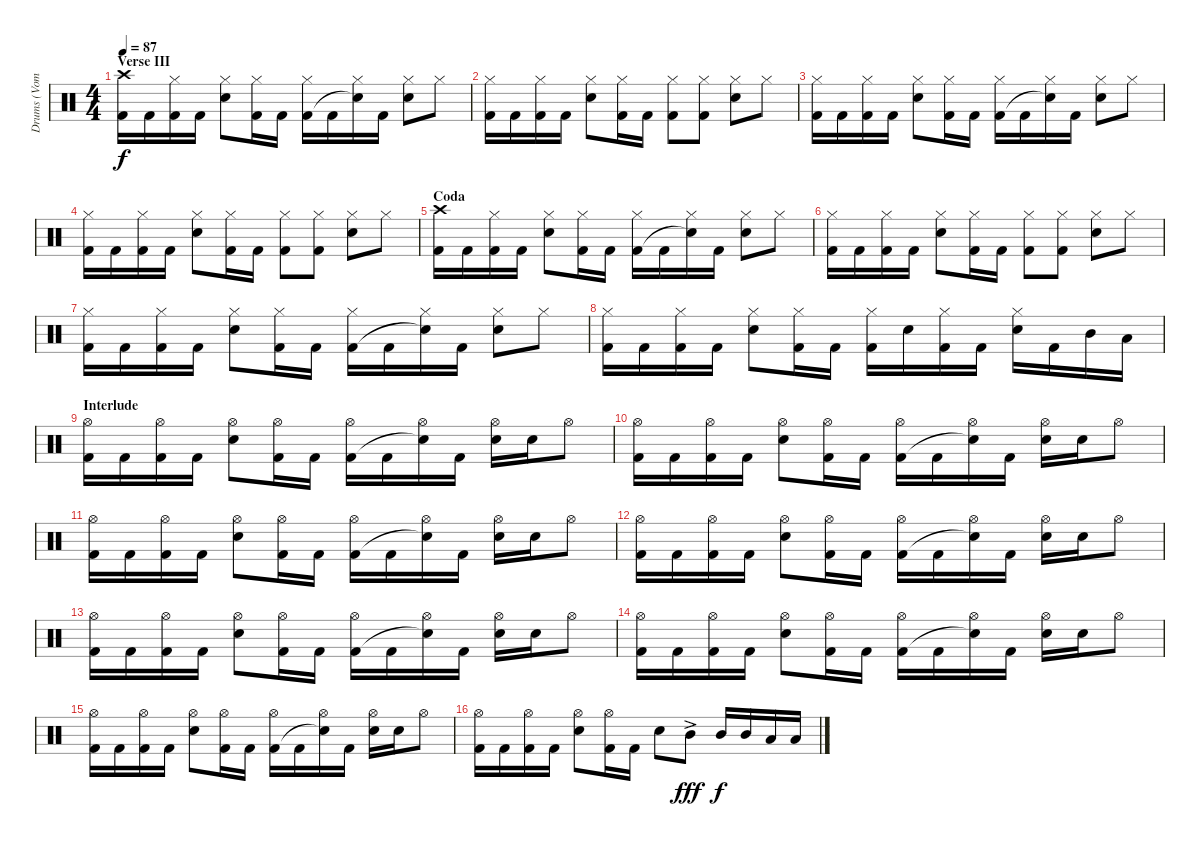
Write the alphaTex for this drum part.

\track ("Drums (Vom)" "Drums (Vom") {instrument percussion}
\staff {score}
\articulation defaults
\ts (4 4)
\section ("" "Verse III")
\tempo 87
\clef neutral
\ks c
("Crash high (hit)" "Kick (hit) 2").16{dy f} "Kick (hit) 2".16 ("Hi-Hat (closed)" "Kick (hit) 2").16 "Kick (hit) 2".16 ("Hi-Hat (closed)" "Snare (hit) 2").8 ("Hi-Hat (closed)" "Kick (hit) 2").16 "Kick (hit) 2".16 ("Hi-Hat (closed)" "Kick (hit) 2").16 "Kick (hit) 2".16 ("Hi-Hat (closed)" "Snare (hit)"{t}).16 "Kick (hit) 2".16 ("Hi-Hat (closed)" "Snare (hit) 2").8 "Hi-Hat (closed)".8 |
("Hi-Hat (closed)" "Kick (hit) 2").16 "Kick (hit) 2".16 ("Hi-Hat (closed)" "Kick (hit) 2").16 "Kick (hit) 2".16 ("Hi-Hat (closed)" "Snare (hit) 2").8 ("Hi-Hat (closed)" "Kick (hit) 2").16 "Kick (hit) 2".16 ("Hi-Hat (closed)" "Kick (hit) 2").8 ("Hi-Hat (closed)" "Kick (hit) 2").8 ("Hi-Hat (closed)" "Snare (hit) 2").8 "Hi-Hat (closed)".8 |
("Hi-Hat (closed)" "Kick (hit) 2").16 "Kick (hit) 2".16 ("Hi-Hat (closed)" "Kick (hit) 2").16 "Kick (hit) 2".16 ("Hi-Hat (closed)" "Snare (hit) 2").8 ("Hi-Hat (closed)" "Kick (hit) 2").16 "Kick (hit) 2".16 ("Hi-Hat (closed)" "Kick (hit) 2").16 "Kick (hit) 2".16 ("Hi-Hat (closed)" "Snare (hit)"{t}).16 "Kick (hit) 2".16 ("Hi-Hat (closed)" "Snare (hit) 2").8 "Hi-Hat (closed)".8 |
("Hi-Hat (closed)" "Kick (hit) 2").16 "Kick (hit) 2".16 ("Hi-Hat (closed)" "Kick (hit) 2").16 "Kick (hit) 2".16 ("Hi-Hat (closed)" "Snare (hit) 2").8 ("Hi-Hat (closed)" "Kick (hit) 2").16 "Kick (hit) 2".16 ("Hi-Hat (closed)" "Kick (hit) 2").8 ("Hi-Hat (closed)" "Kick (hit) 2").8 ("Hi-Hat (closed)" "Snare (hit) 2").8 "Hi-Hat (closed)".8 |
\section ("" "Coda")
("Crash high (hit)" "Kick (hit) 2").16 "Kick (hit) 2".16 ("Hi-Hat (closed)" "Kick (hit) 2").16 "Kick (hit) 2".16 ("Hi-Hat (closed)" "Snare (hit) 2").8 ("Hi-Hat (closed)" "Kick (hit) 2").16 "Kick (hit) 2".16 ("Hi-Hat (closed)" "Kick (hit) 2").16 "Kick (hit) 2".16 ("Hi-Hat (closed)" "Snare (hit)"{t}).16 "Kick (hit) 2".16 ("Hi-Hat (closed)" "Snare (hit) 2").8 "Hi-Hat (closed)".8 |
("Hi-Hat (closed)" "Kick (hit) 2").16 "Kick (hit) 2".16 ("Hi-Hat (closed)" "Kick (hit) 2").16 "Kick (hit) 2".16 ("Hi-Hat (closed)" "Snare (hit) 2").8 ("Hi-Hat (closed)" "Kick (hit) 2").16 "Kick (hit) 2".16 ("Hi-Hat (closed)" "Kick (hit) 2").8 ("Hi-Hat (closed)" "Kick (hit) 2").8 ("Hi-Hat (closed)" "Snare (hit) 2").8 "Hi-Hat (closed)".8 |
("Hi-Hat (closed)" "Kick (hit) 2").16 "Kick (hit) 2".16 ("Hi-Hat (closed)" "Kick (hit) 2").16 "Kick (hit) 2".16 ("Hi-Hat (closed)" "Snare (hit) 2").8 ("Hi-Hat (closed)" "Kick (hit) 2").16 "Kick (hit) 2".16 ("Hi-Hat (closed)" "Kick (hit) 2").16 "Kick (hit) 2".16 ("Hi-Hat (closed)" "Snare (hit)"{t}).16 "Kick (hit) 2".16 ("Hi-Hat (closed)" "Snare (hit) 2").8 "Hi-Hat (closed)".8 |
("Hi-Hat (closed)" "Kick (hit) 2").16 "Kick (hit) 2".16 ("Hi-Hat (closed)" "Kick (hit) 2").16 "Kick (hit) 2".16 ("Hi-Hat (closed)" "Snare (hit) 2").8 ("Hi-Hat (closed)" "Kick (hit) 2").16 "Kick (hit) 2".16 ("Hi-Hat (closed)" "Kick (hit) 2").16 "Snare (hit) 2".16 ("Hi-Hat (closed)" "Kick (hit) 2").16 "Kick (hit) 2".16 ("Hi-Hat (closed)" "Snare (hit) 2").16 "Kick (hit) 2".16 "Mid Tom (hit)".16 "Low Tom (hit)".16 |
\section ("" "Interlude")
("Hi-Hat (open)" "Kick (hit) 2").16 "Kick (hit) 2".16 ("Hi-Hat (open)" "Kick (hit) 2").16 "Kick (hit) 2".16 ("Hi-Hat (open)" "Snare (hit) 2").8 ("Hi-Hat (open)" "Kick (hit) 2").16 "Kick (hit) 2".16 ("Hi-Hat (open)" "Kick (hit) 2").16 "Kick (hit) 2".16 ("Hi-Hat (open)" "Snare (hit)"{t}).16 "Kick (hit) 2".16 ("Hi-Hat (open)" "Snare (hit) 2").16 "Snare (hit) 2".16 "Hi-Hat (open)".8 |
("Hi-Hat (open)" "Kick (hit) 2").16 "Kick (hit) 2".16 ("Hi-Hat (open)" "Kick (hit) 2").16 "Kick (hit) 2".16 ("Hi-Hat (open)" "Snare (hit) 2").8 ("Hi-Hat (open)" "Kick (hit) 2").16 "Kick (hit) 2".16 ("Hi-Hat (open)" "Kick (hit) 2").16 "Kick (hit) 2".16 ("Hi-Hat (open)" "Snare (hit)"{t}).16 "Kick (hit) 2".16 ("Hi-Hat (open)" "Snare (hit) 2").16 "Snare (hit) 2".16 "Hi-Hat (open)".8 |
("Hi-Hat (open)" "Kick (hit) 2").16 "Kick (hit) 2".16 ("Hi-Hat (open)" "Kick (hit) 2").16 "Kick (hit) 2".16 ("Hi-Hat (open)" "Snare (hit) 2").8 ("Hi-Hat (open)" "Kick (hit) 2").16 "Kick (hit) 2".16 ("Hi-Hat (open)" "Kick (hit) 2").16 "Kick (hit) 2".16 ("Hi-Hat (open)" "Snare (hit)"{t}).16 "Kick (hit) 2".16 ("Hi-Hat (open)" "Snare (hit) 2").16 "Snare (hit) 2".16 "Hi-Hat (open)".8 |
("Hi-Hat (open)" "Kick (hit) 2").16 "Kick (hit) 2".16 ("Hi-Hat (open)" "Kick (hit) 2").16 "Kick (hit) 2".16 ("Hi-Hat (open)" "Snare (hit) 2").8 ("Hi-Hat (open)" "Kick (hit) 2").16 "Kick (hit) 2".16 ("Hi-Hat (open)" "Kick (hit) 2").16 "Kick (hit) 2".16 ("Hi-Hat (open)" "Snare (hit)"{t}).16 "Kick (hit) 2".16 ("Hi-Hat (open)" "Snare (hit) 2").16 "Snare (hit) 2".16 "Hi-Hat (open)".8 |
("Hi-Hat (open)" "Kick (hit) 2").16 "Kick (hit) 2".16 ("Hi-Hat (open)" "Kick (hit) 2").16 "Kick (hit) 2".16 ("Hi-Hat (open)" "Snare (hit) 2").8 ("Hi-Hat (open)" "Kick (hit) 2").16 "Kick (hit) 2".16 ("Hi-Hat (open)" "Kick (hit) 2").16 "Kick (hit) 2".16 ("Hi-Hat (open)" "Snare (hit)"{t}).16 "Kick (hit) 2".16 ("Hi-Hat (open)" "Snare (hit) 2").16 "Snare (hit) 2".16 "Hi-Hat (open)".8 |
("Hi-Hat (open)" "Kick (hit) 2").16 "Kick (hit) 2".16 ("Hi-Hat (open)" "Kick (hit) 2").16 "Kick (hit) 2".16 ("Hi-Hat (open)" "Snare (hit) 2").8 ("Hi-Hat (open)" "Kick (hit) 2").16 "Kick (hit) 2".16 ("Hi-Hat (open)" "Kick (hit) 2").16 "Kick (hit) 2".16 ("Hi-Hat (open)" "Snare (hit)"{t}).16 "Kick (hit) 2".16 ("Hi-Hat (open)" "Snare (hit) 2").16 "Snare (hit) 2".16 "Hi-Hat (open)".8 |
("Hi-Hat (open)" "Kick (hit) 2").16 "Kick (hit) 2".16 ("Hi-Hat (open)" "Kick (hit) 2").16 "Kick (hit) 2".16 ("Hi-Hat (open)" "Snare (hit) 2").8 ("Hi-Hat (open)" "Kick (hit) 2").16 "Kick (hit) 2".16 ("Hi-Hat (open)" "Kick (hit) 2").16 "Kick (hit) 2".16 ("Hi-Hat (open)" "Snare (hit)"{t}).16 "Kick (hit) 2".16 ("Hi-Hat (open)" "Snare (hit) 2").16 "Snare (hit) 2".16 "Hi-Hat (open)".8 |
("Hi-Hat (open)" "Kick (hit) 2").16 "Kick (hit) 2".16 ("Hi-Hat (open)" "Kick (hit) 2").16 "Kick (hit) 2".16 ("Hi-Hat (open)" "Snare (hit) 2").8 ("Hi-Hat (open)" "Kick (hit) 2").16 "Kick (hit) 2".16 "Snare (hit) 2".8 "Mid Tom (hit)"{ac}.8{dy fff} "Mid Tom (hit)".16{dy f} "Mid Tom (hit)".16 "Low Tom (hit)".16 "Low Tom (hit)".16
